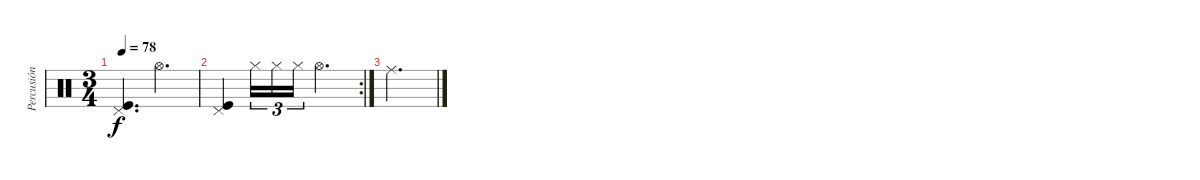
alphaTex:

\track ("Percusión" "Percusión") {instrument percussion}
\staff {score}
\articulation defaults
\ts (3 4)
\tempo 78
\clef neutral
\ks c
("Pedal Hi-Hat (hit)" "Kick (hit)").4{d dy f} "Hi-Hat (open)".4{d} |
\rc 2
("Pedal Hi-Hat (hit)" "Kick (hit)").4 "Hi-Hat (closed)".16{tu (3 2)} "Hi-Hat (closed)".16{tu (3 2)} "Hi-Hat (closed)".16{tu (3 2)} "Hi-Hat (open)".4{d} |
"Ride (middle)".2{d}
